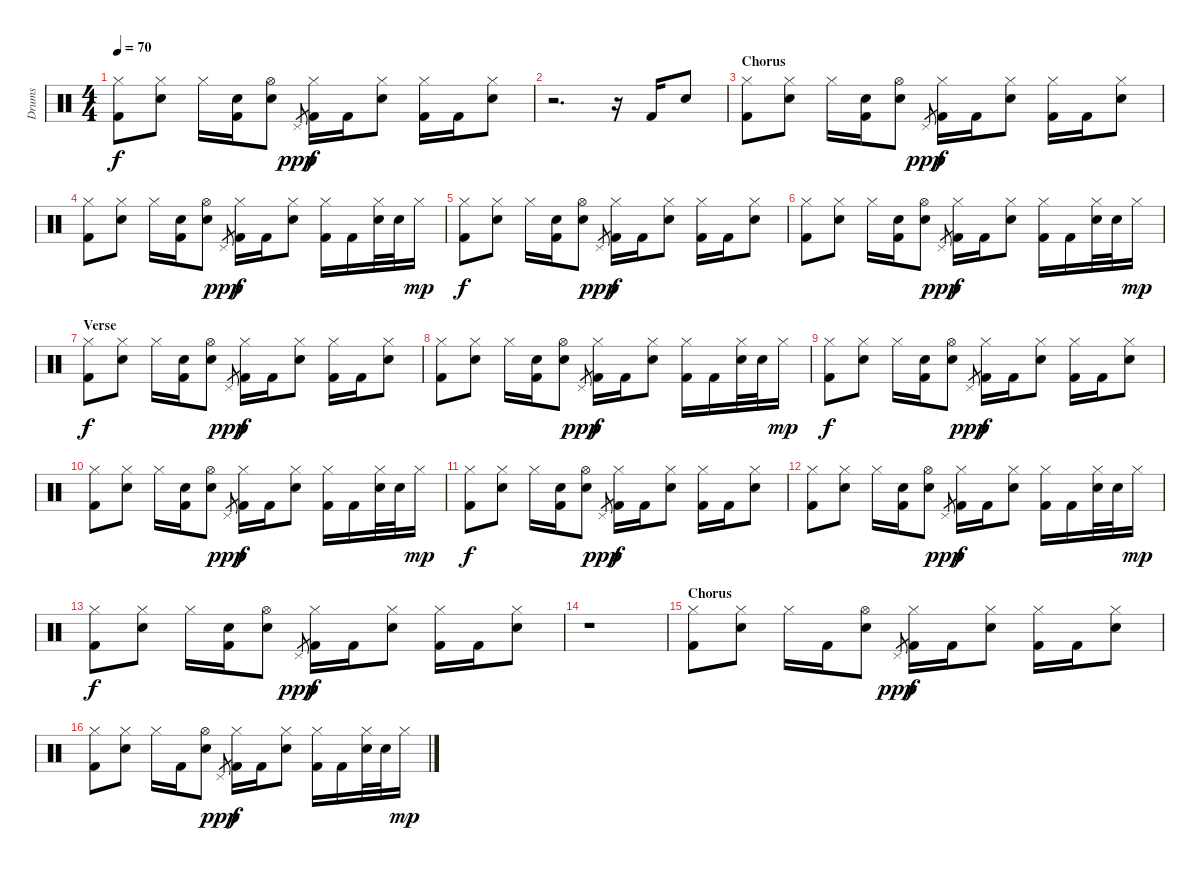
\track ("Drums" "Drums") {instrument percussion}
\staff {score}
\articulation defaults
\ts (4 4)
\tempo 70
\clef neutral
\ks c
("Hi-Hat (closed)" "Kick (hit) 2").8{dy f} ("Hi-Hat (closed)" "Electric Snare (hit)").8 "Hi-Hat (closed)".16 ("Snare (hit)" "Kick (hit) 2").16 ("Hi-Hat (open)" "Electric Snare (hit)").8 "Pedal Hi-Hat (hit)".8{gr dy ppp} ("Hi-Hat (closed)" "Kick (hit) 2").16{dy f} "Kick (hit) 2".16 ("Hi-Hat (closed)" "Electric Snare (hit)").8 ("Hi-Hat (closed)" "Kick (hit) 2").16 "Kick (hit) 2".16 ("Hi-Hat (closed)" "Electric Snare (hit)").8 |
r.2{d} r.16 "Kick (hit) 2".16 "Electric Snare (hit)".8 |
\section ("" "Chorus")
("Hi-Hat (closed)" "Kick (hit) 2").8 ("Hi-Hat (closed)" "Electric Snare (hit)").8 "Hi-Hat (closed)".16 ("Snare (hit)" "Kick (hit) 2").16 ("Hi-Hat (open)" "Electric Snare (hit)").8 "Pedal Hi-Hat (hit)".8{gr dy ppp} ("Hi-Hat (closed)" "Kick (hit) 2").16{dy f} "Kick (hit) 2".16 ("Hi-Hat (closed)" "Electric Snare (hit)").8 ("Hi-Hat (closed)" "Kick (hit) 2").16 "Kick (hit) 2".16 ("Hi-Hat (closed)" "Electric Snare (hit)").8 |
("Hi-Hat (closed)" "Kick (hit) 2").8 ("Hi-Hat (closed)" "Electric Snare (hit)").8 "Hi-Hat (closed)".16 ("Snare (hit)" "Kick (hit) 2").16 ("Hi-Hat (open)" "Electric Snare (hit)").8 "Pedal Hi-Hat (hit)".8{gr dy ppp} ("Hi-Hat (closed)" "Kick (hit) 2").16{dy f} "Kick (hit) 2".16 ("Hi-Hat (closed)" "Electric Snare (hit)").8 ("Hi-Hat (closed)" "Kick (hit) 2").16 "Kick (hit) 2".16 ("Hi-Hat (closed)" "Electric Snare (hit)").32 "Electric Snare (hit)".32 "Hi-Hat (closed)".16{dy mp} |
("Hi-Hat (closed)" "Kick (hit) 2").8{dy f} ("Hi-Hat (closed)" "Electric Snare (hit)").8 "Hi-Hat (closed)".16 ("Snare (hit)" "Kick (hit) 2").16 ("Hi-Hat (open)" "Electric Snare (hit)").8 "Pedal Hi-Hat (hit)".8{gr dy ppp} ("Hi-Hat (closed)" "Kick (hit) 2").16{dy f} "Kick (hit) 2".16 ("Hi-Hat (closed)" "Electric Snare (hit)").8 ("Hi-Hat (closed)" "Kick (hit) 2").16 "Kick (hit) 2".16 ("Hi-Hat (closed)" "Electric Snare (hit)").8 |
("Hi-Hat (closed)" "Kick (hit) 2").8 ("Hi-Hat (closed)" "Electric Snare (hit)").8 "Hi-Hat (closed)".16 ("Snare (hit)" "Kick (hit) 2").16 ("Hi-Hat (open)" "Electric Snare (hit)").8 "Pedal Hi-Hat (hit)".8{gr dy ppp} ("Hi-Hat (closed)" "Kick (hit) 2").16{dy f} "Kick (hit) 2".16 ("Hi-Hat (closed)" "Electric Snare (hit)").8 ("Hi-Hat (closed)" "Kick (hit) 2").16 "Kick (hit) 2".16 ("Hi-Hat (closed)" "Electric Snare (hit)").32 "Electric Snare (hit)".32 "Hi-Hat (closed)".16{dy mp} |
\section ("" "Verse")
("Hi-Hat (closed)" "Kick (hit) 2").8{dy f} ("Hi-Hat (closed)" "Electric Snare (hit)").8 "Hi-Hat (closed)".16 ("Snare (hit)" "Kick (hit) 2").16 ("Hi-Hat (open)" "Electric Snare (hit)").8 "Pedal Hi-Hat (hit)".8{gr dy ppp} ("Hi-Hat (closed)" "Kick (hit) 2").16{dy f} "Kick (hit) 2".16 ("Hi-Hat (closed)" "Electric Snare (hit)").8 ("Hi-Hat (closed)" "Kick (hit) 2").16 "Kick (hit) 2".16 ("Hi-Hat (closed)" "Electric Snare (hit)").8 |
("Hi-Hat (closed)" "Kick (hit) 2").8 ("Hi-Hat (closed)" "Electric Snare (hit)").8 "Hi-Hat (closed)".16 ("Snare (hit)" "Kick (hit) 2").16 ("Hi-Hat (open)" "Electric Snare (hit)").8 "Pedal Hi-Hat (hit)".8{gr dy ppp} ("Hi-Hat (closed)" "Kick (hit) 2").16{dy f} "Kick (hit) 2".16 ("Hi-Hat (closed)" "Electric Snare (hit)").8 ("Hi-Hat (closed)" "Kick (hit) 2").16 "Kick (hit) 2".16 ("Hi-Hat (closed)" "Electric Snare (hit)").32 "Electric Snare (hit)".32 "Hi-Hat (closed)".16{dy mp} |
("Hi-Hat (closed)" "Kick (hit) 2").8{dy f} ("Hi-Hat (closed)" "Electric Snare (hit)").8 "Hi-Hat (closed)".16 ("Snare (hit)" "Kick (hit) 2").16 ("Hi-Hat (open)" "Electric Snare (hit)").8 "Pedal Hi-Hat (hit)".8{gr dy ppp} ("Hi-Hat (closed)" "Kick (hit) 2").16{dy f} "Kick (hit) 2".16 ("Hi-Hat (closed)" "Electric Snare (hit)").8 ("Hi-Hat (closed)" "Kick (hit) 2").16 "Kick (hit) 2".16 ("Hi-Hat (closed)" "Electric Snare (hit)").8 |
("Hi-Hat (closed)" "Kick (hit) 2").8 ("Hi-Hat (closed)" "Electric Snare (hit)").8 "Hi-Hat (closed)".16 ("Snare (hit)" "Kick (hit) 2").16 ("Hi-Hat (open)" "Electric Snare (hit)").8 "Pedal Hi-Hat (hit)".8{gr dy ppp} ("Hi-Hat (closed)" "Kick (hit) 2").16{dy f} "Kick (hit) 2".16 ("Hi-Hat (closed)" "Electric Snare (hit)").8 ("Hi-Hat (closed)" "Kick (hit) 2").16 "Kick (hit) 2".16 ("Hi-Hat (closed)" "Electric Snare (hit)").32 "Electric Snare (hit)".32 "Hi-Hat (closed)".16{dy mp} |
("Hi-Hat (closed)" "Kick (hit) 2").8{dy f} ("Hi-Hat (closed)" "Electric Snare (hit)").8 "Hi-Hat (closed)".16 ("Snare (hit)" "Kick (hit) 2").16 ("Hi-Hat (open)" "Electric Snare (hit)").8 "Pedal Hi-Hat (hit)".8{gr dy ppp} ("Hi-Hat (closed)" "Kick (hit) 2").16{dy f} "Kick (hit) 2".16 ("Hi-Hat (closed)" "Electric Snare (hit)").8 ("Hi-Hat (closed)" "Kick (hit) 2").16 "Kick (hit) 2".16 ("Hi-Hat (closed)" "Electric Snare (hit)").8 |
("Hi-Hat (closed)" "Kick (hit) 2").8 ("Hi-Hat (closed)" "Electric Snare (hit)").8 "Hi-Hat (closed)".16 ("Snare (hit)" "Kick (hit) 2").16 ("Hi-Hat (open)" "Electric Snare (hit)").8 "Pedal Hi-Hat (hit)".8{gr dy ppp} ("Hi-Hat (closed)" "Kick (hit) 2").16{dy f} "Kick (hit) 2".16 ("Hi-Hat (closed)" "Electric Snare (hit)").8 ("Hi-Hat (closed)" "Kick (hit) 2").16 "Kick (hit) 2".16 ("Hi-Hat (closed)" "Electric Snare (hit)").32 "Electric Snare (hit)".32 "Hi-Hat (closed)".16{dy mp} |
("Hi-Hat (closed)" "Kick (hit) 2").8{dy f} ("Hi-Hat (closed)" "Electric Snare (hit)").8 "Hi-Hat (closed)".16 ("Snare (hit)" "Kick (hit) 2").16 ("Hi-Hat (open)" "Electric Snare (hit)").8 "Pedal Hi-Hat (hit)".8{gr dy ppp} ("Hi-Hat (closed)" "Kick (hit) 2").16{dy f} "Kick (hit) 2".16 ("Hi-Hat (closed)" "Electric Snare (hit)").8 ("Hi-Hat (closed)" "Kick (hit) 2").16 "Kick (hit) 2".16 ("Hi-Hat (closed)" "Electric Snare (hit)").8 |
r.1 |
\section ("" "Chorus")
("Hi-Hat (closed)" "Kick (hit) 2").8 ("Hi-Hat (closed)" "Electric Snare (hit)").8 "Hi-Hat (closed)".16 "Kick (hit) 2".16 ("Hi-Hat (open)" "Electric Snare (hit)").8 "Pedal Hi-Hat (hit)".8{gr dy ppp} ("Hi-Hat (closed)" "Kick (hit) 2").16{dy f} "Kick (hit) 2".16 ("Hi-Hat (closed)" "Electric Snare (hit)").8 ("Hi-Hat (closed)" "Kick (hit) 2").16 "Kick (hit) 2".16 ("Hi-Hat (closed)" "Electric Snare (hit)").8 |
("Hi-Hat (closed)" "Kick (hit) 2").8 ("Hi-Hat (closed)" "Electric Snare (hit)").8 "Hi-Hat (closed)".16 "Kick (hit) 2".16 ("Hi-Hat (open)" "Electric Snare (hit)").8 "Pedal Hi-Hat (hit)".8{gr dy ppp} ("Hi-Hat (closed)" "Kick (hit) 2").16{dy f} "Kick (hit) 2".16 ("Hi-Hat (closed)" "Electric Snare (hit)").8 ("Hi-Hat (closed)" "Kick (hit) 2").16 "Kick (hit) 2".16 ("Hi-Hat (closed)" "Electric Snare (hit)").32 "Electric Snare (hit)".32 "Hi-Hat (closed)".16{dy mp}
